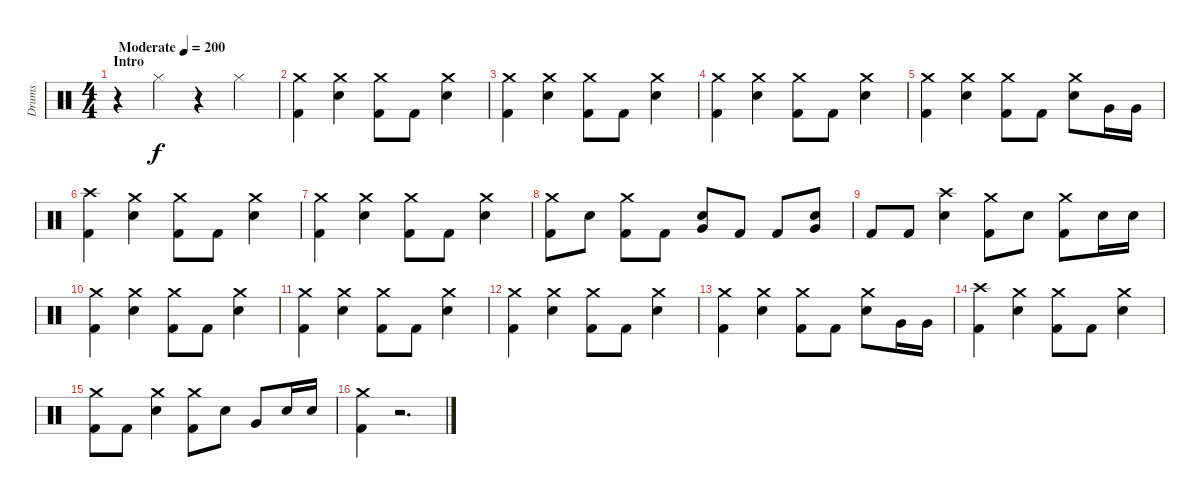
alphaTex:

\track ("Drums" "Drums") {instrument percussion}
\staff {score}
\articulation defaults
\ts (4 4)
\section ("" "Intro")
\tempo (200 "Moderate")
\clef neutral
\ks c
r.4{dy f} "Hi-Hat (closed)".4 r.4 "Hi-Hat (closed)".4 |
("Crash medium (hit)" "Kick (hit) 2").4 ("Crash medium (hit)" "Snare (hit) 2").4 ("Crash medium (hit)" "Kick (hit) 2").8 "Kick (hit) 2".8 ("Crash medium (hit)" "Snare (hit) 2").4 |
("Crash medium (hit)" "Kick (hit) 2").4 ("Crash medium (hit)" "Snare (hit) 2").4 ("Crash medium (hit)" "Kick (hit) 2").8 "Kick (hit) 2".8 ("Crash medium (hit)" "Snare (hit) 2").4 |
("Crash medium (hit)" "Kick (hit) 2").4 ("Crash medium (hit)" "Snare (hit) 2").4 ("Crash medium (hit)" "Kick (hit) 2").8 "Kick (hit) 2".8 ("Crash medium (hit)" "Snare (hit) 2").4 |
("Crash medium (hit)" "Kick (hit) 2").4 ("Crash medium (hit)" "Snare (hit) 2").4 ("Crash medium (hit)" "Kick (hit) 2").8 "Kick (hit) 2".8 ("Crash medium (hit)" "Snare (hit) 2").8 "Very Low Tom (hit)".16 "Very Low Tom (hit)".16 |
("Crash high (hit)" "Kick (hit) 2").4 ("Crash medium (hit)" "Snare (hit) 2").4 ("Crash medium (hit)" "Kick (hit) 2").8 "Kick (hit) 2".8 ("Crash medium (hit)" "Snare (hit) 2").4 |
("Crash medium (hit)" "Kick (hit) 2").4 ("Crash medium (hit)" "Snare (hit) 2").4 ("Crash medium (hit)" "Kick (hit) 2").8 "Kick (hit) 2".8 ("Crash medium (hit)" "Snare (hit) 2").4 |
("Crash medium (hit)" "Kick (hit) 2").8 "Snare (hit) 2".8 ("Crash medium (hit)" "Kick (hit) 2").8 "Kick (hit) 2".8 ("Snare (hit) 2" "Very Low Tom (hit)").8 "Kick (hit) 2".8 "Kick (hit) 2".8 ("Snare (hit) 2" "Very Low Tom (hit)").8 |
"Kick (hit) 2".8 "Kick (hit) 2".8 ("Crash high (hit)" "Snare (hit) 2").4 ("Crash medium (hit)" "Kick (hit) 2").8 "Snare (hit) 2".8 ("Crash medium (hit)" "Kick (hit) 2").8 "Snare (hit) 2".16 "Snare (hit) 2".16 |
("Crash medium (hit)" "Kick (hit) 2").4 ("Crash medium (hit)" "Snare (hit) 2").4 ("Crash medium (hit)" "Kick (hit) 2").8 "Kick (hit) 2".8 ("Crash medium (hit)" "Snare (hit) 2").4 |
("Crash medium (hit)" "Kick (hit) 2").4 ("Crash medium (hit)" "Snare (hit) 2").4 ("Crash medium (hit)" "Kick (hit) 2").8 "Kick (hit) 2".8 ("Crash medium (hit)" "Snare (hit) 2").4 |
("Crash medium (hit)" "Kick (hit) 2").4 ("Crash medium (hit)" "Snare (hit) 2").4 ("Crash medium (hit)" "Kick (hit) 2").8 "Kick (hit) 2".8 ("Crash medium (hit)" "Snare (hit) 2").4 |
("Crash medium (hit)" "Kick (hit) 2").4 ("Crash medium (hit)" "Snare (hit) 2").4 ("Crash medium (hit)" "Kick (hit) 2").8 "Kick (hit) 2".8 ("Crash medium (hit)" "Snare (hit) 2").8 "Very Low Tom (hit)".16 "Very Low Tom (hit)".16 |
("Crash high (hit)" "Kick (hit) 2").4 ("Crash medium (hit)" "Snare (hit) 2").4 ("Crash medium (hit)" "Kick (hit) 2").8 "Kick (hit) 2".8 ("Crash medium (hit)" "Snare (hit) 2").4 |
("Crash medium (hit)" "Kick (hit) 2").8 "Kick (hit) 2".8 ("Crash medium (hit)" "Snare (hit) 2").4 ("Crash medium (hit)" "Kick (hit) 2").8 "Snare (hit) 2".8 "Very Low Tom (hit)".8 "Snare (hit) 2".16 "Snare (hit) 2".16 |
("Crash medium (hit)" "Kick (hit) 2").4 r.2{d}
